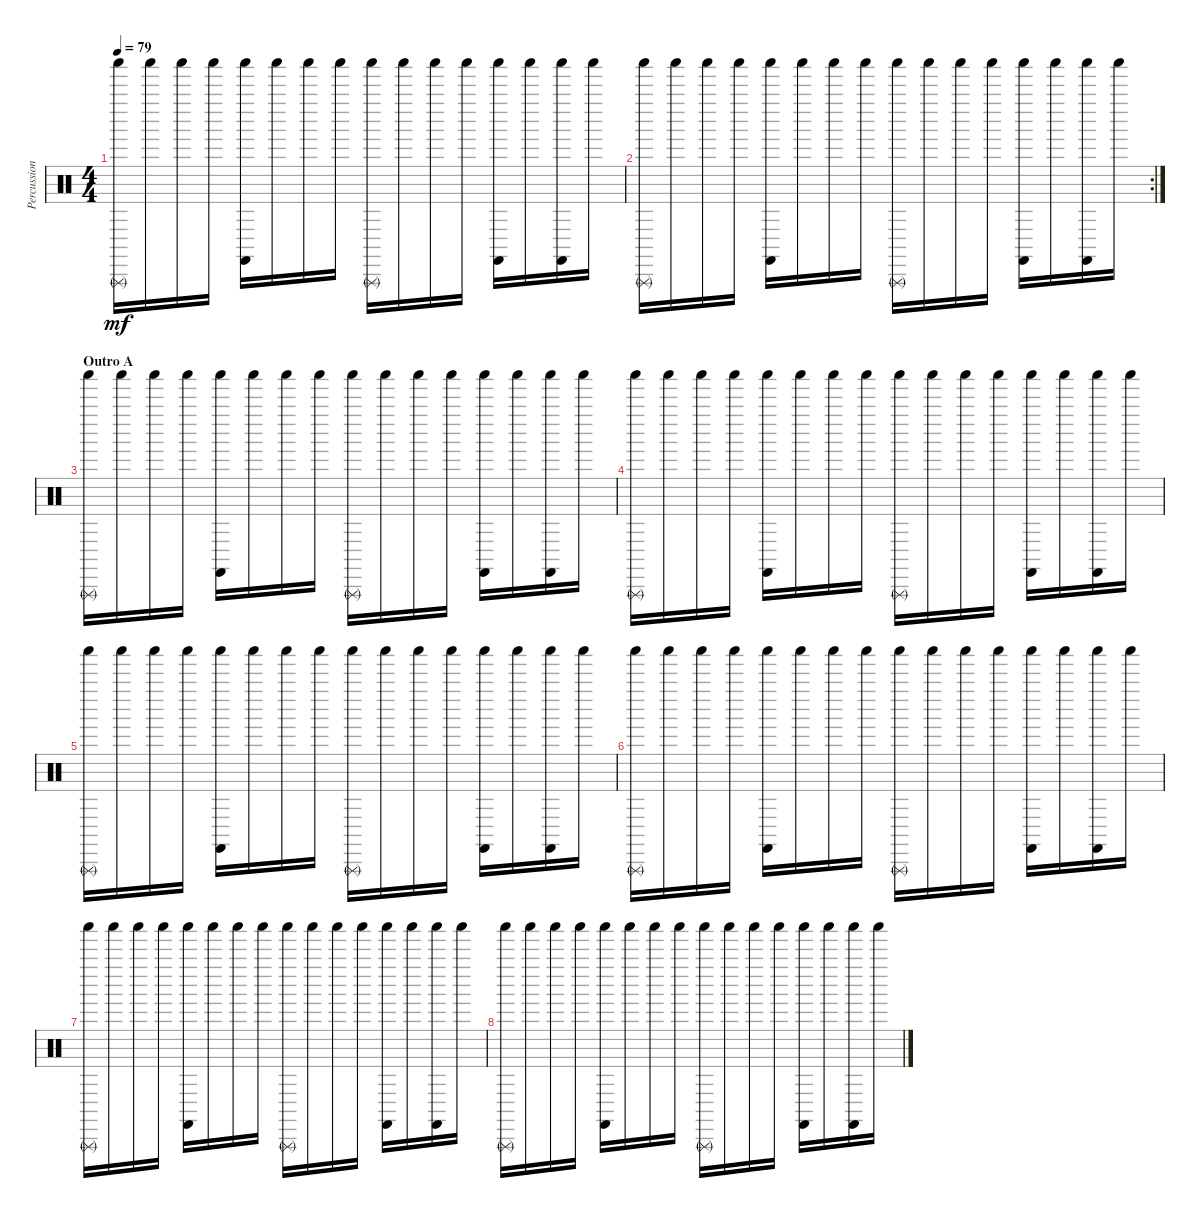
\track ("Percussion" "Percussion") {instrument percussion}
\staff {score}
\articulation defaults
\ts (4 4)
\tempo 79
\clef neutral
\ks c
("Shaker (hit)" "Triangle (rnute)").16{dy mf} "Shaker (hit)".16 "Shaker (hit)".16 "Shaker (hit)".16 ("Shaker (hit)" "Castanets (hit)").16 "Shaker (hit)".16 "Shaker (hit)".16 "Shaker (hit)".16 ("Shaker (hit)" "Triangle (rnute)").16 "Shaker (hit)".16 "Shaker (hit)".16 "Shaker (hit)".16 ("Shaker (hit)" "Castanets (hit)").16 "Shaker (hit)".16 ("Shaker (hit)" "Castanets (hit)").16 "Shaker (hit)".16 |
\rc 2
("Shaker (hit)" "Triangle (rnute)").16 "Shaker (hit)".16 "Shaker (hit)".16 "Shaker (hit)".16 ("Shaker (hit)" "Castanets (hit)").16 "Shaker (hit)".16 "Shaker (hit)".16 "Shaker (hit)".16 ("Shaker (hit)" "Triangle (rnute)").16 "Shaker (hit)".16 "Shaker (hit)".16 "Shaker (hit)".16 ("Shaker (hit)" "Castanets (hit)").16 "Shaker (hit)".16 ("Shaker (hit)" "Castanets (hit)").16 "Shaker (hit)".16 |
\section ("" "Outro A")
("Shaker (hit)" "Triangle (rnute)").16 "Shaker (hit)".16 "Shaker (hit)".16 "Shaker (hit)".16 ("Shaker (hit)" "Castanets (hit)").16 "Shaker (hit)".16 "Shaker (hit)".16 "Shaker (hit)".16 ("Shaker (hit)" "Triangle (rnute)").16 "Shaker (hit)".16 "Shaker (hit)".16 "Shaker (hit)".16 ("Shaker (hit)" "Castanets (hit)").16 "Shaker (hit)".16 ("Shaker (hit)" "Castanets (hit)").16 "Shaker (hit)".16 |
("Shaker (hit)" "Triangle (rnute)").16 "Shaker (hit)".16 "Shaker (hit)".16 "Shaker (hit)".16 ("Shaker (hit)" "Castanets (hit)").16 "Shaker (hit)".16 "Shaker (hit)".16 "Shaker (hit)".16 ("Shaker (hit)" "Triangle (rnute)").16 "Shaker (hit)".16 "Shaker (hit)".16 "Shaker (hit)".16 ("Shaker (hit)" "Castanets (hit)").16 "Shaker (hit)".16 ("Shaker (hit)" "Castanets (hit)").16 "Shaker (hit)".16 |
("Shaker (hit)" "Triangle (rnute)").16 "Shaker (hit)".16 "Shaker (hit)".16 "Shaker (hit)".16 ("Shaker (hit)" "Castanets (hit)").16 "Shaker (hit)".16 "Shaker (hit)".16 "Shaker (hit)".16 ("Shaker (hit)" "Triangle (rnute)").16 "Shaker (hit)".16 "Shaker (hit)".16 "Shaker (hit)".16 ("Shaker (hit)" "Castanets (hit)").16 "Shaker (hit)".16 ("Shaker (hit)" "Castanets (hit)").16 "Shaker (hit)".16 |
("Shaker (hit)" "Triangle (rnute)").16 "Shaker (hit)".16 "Shaker (hit)".16 "Shaker (hit)".16 ("Shaker (hit)" "Castanets (hit)").16 "Shaker (hit)".16 "Shaker (hit)".16 "Shaker (hit)".16 ("Shaker (hit)" "Triangle (rnute)").16 "Shaker (hit)".16 "Shaker (hit)".16 "Shaker (hit)".16 ("Shaker (hit)" "Castanets (hit)").16 "Shaker (hit)".16 ("Shaker (hit)" "Castanets (hit)").16 "Shaker (hit)".16 |
("Shaker (hit)" "Triangle (rnute)").16 "Shaker (hit)".16 "Shaker (hit)".16 "Shaker (hit)".16 ("Shaker (hit)" "Castanets (hit)").16 "Shaker (hit)".16 "Shaker (hit)".16 "Shaker (hit)".16 ("Shaker (hit)" "Triangle (rnute)").16 "Shaker (hit)".16 "Shaker (hit)".16 "Shaker (hit)".16 ("Shaker (hit)" "Castanets (hit)").16 "Shaker (hit)".16 ("Shaker (hit)" "Castanets (hit)").16 "Shaker (hit)".16 |
("Shaker (hit)" "Triangle (rnute)").16 "Shaker (hit)".16 "Shaker (hit)".16 "Shaker (hit)".16 ("Shaker (hit)" "Castanets (hit)").16 "Shaker (hit)".16 "Shaker (hit)".16 "Shaker (hit)".16 ("Shaker (hit)" "Triangle (rnute)").16 "Shaker (hit)".16 "Shaker (hit)".16 "Shaker (hit)".16 ("Shaker (hit)" "Castanets (hit)").16 "Shaker (hit)".16 ("Shaker (hit)" "Castanets (hit)").16 "Shaker (hit)".16
